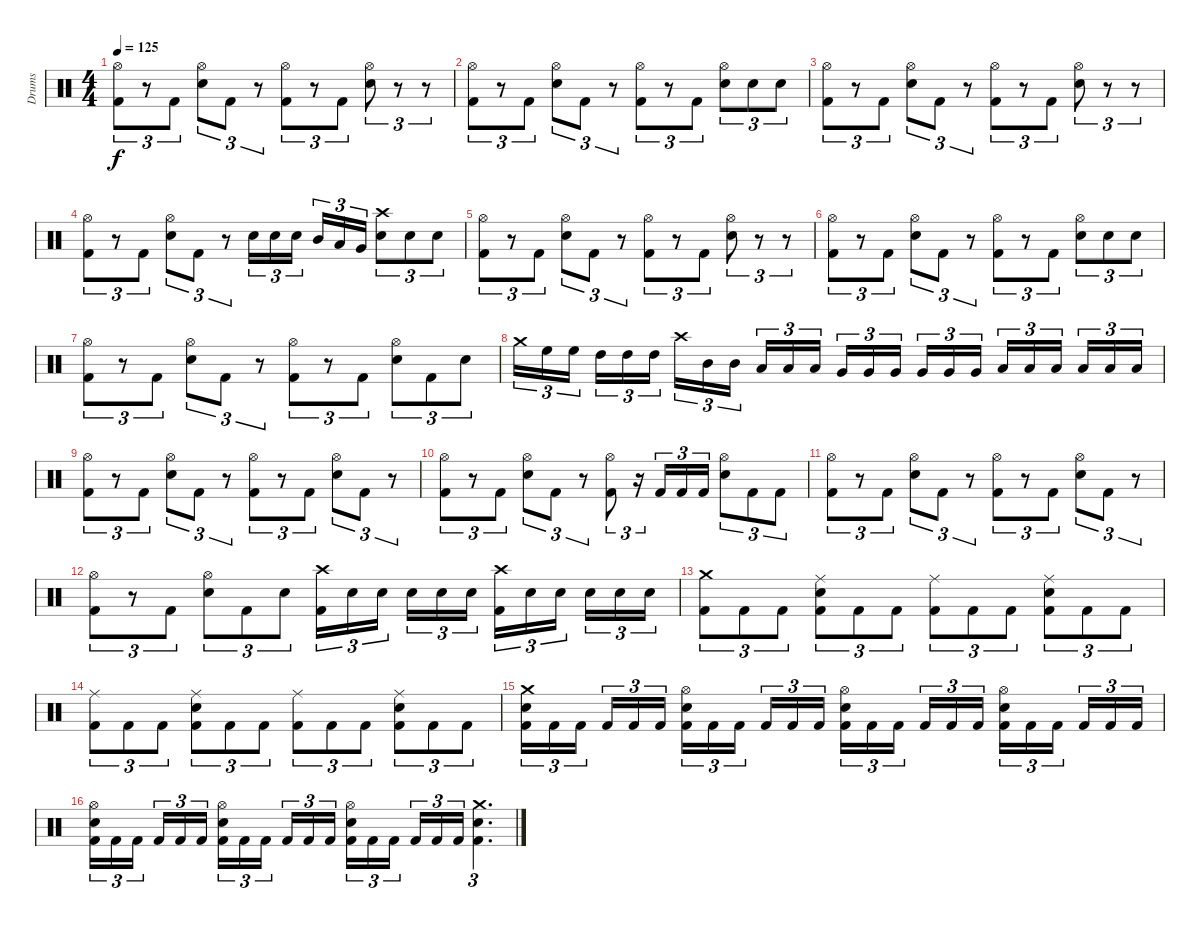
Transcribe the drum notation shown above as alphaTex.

\track ("Drums" "Drums") {instrument percussion}
\staff {score}
\articulation defaults
\ts (4 4)
\tempo 125
\clef neutral
\ks c
("Hi-Hat (open)" "Kick (hit) 2").8{tu (3 2) dy f} r.8{tu (3 2)} "Kick (hit) 2".8{tu (3 2)} ("Hi-Hat (open)" "Electric Snare (hit)").8{tu (3 2)} "Kick (hit) 2".8{tu (3 2)} r.8{tu (3 2)} ("Hi-Hat (open)" "Kick (hit) 2").8{tu (3 2)} r.8{tu (3 2)} "Kick (hit) 2".8{tu (3 2)} ("Hi-Hat (open)" "Electric Snare (hit)").8{tu (3 2)} r.8{tu (3 2)} r.8{tu (3 2)} |
("Hi-Hat (open)" "Kick (hit) 2").8{tu (3 2)} r.8{tu (3 2)} "Kick (hit) 2".8{tu (3 2)} ("Hi-Hat (open)" "Electric Snare (hit)").8{tu (3 2)} "Kick (hit) 2".8{tu (3 2)} r.8{tu (3 2)} ("Hi-Hat (open)" "Kick (hit) 2").8{tu (3 2)} r.8{tu (3 2)} "Kick (hit) 2".8{tu (3 2)} ("Hi-Hat (open)" "Electric Snare (hit)").8{tu (3 2)} "Electric Snare (hit)".8{tu (3 2)} "Electric Snare (hit)".8{tu (3 2)} |
("Hi-Hat (open)" "Kick (hit) 2").8{tu (3 2)} r.8{tu (3 2)} "Kick (hit) 2".8{tu (3 2)} ("Hi-Hat (open)" "Electric Snare (hit)").8{tu (3 2)} "Kick (hit) 2".8{tu (3 2)} r.8{tu (3 2)} ("Hi-Hat (open)" "Kick (hit) 2").8{tu (3 2)} r.8{tu (3 2)} "Kick (hit) 2".8{tu (3 2)} ("Hi-Hat (open)" "Electric Snare (hit)").8{tu (3 2)} r.8{tu (3 2)} r.8{tu (3 2)} |
("Hi-Hat (open)" "Kick (hit) 2").8{tu (3 2)} r.8{tu (3 2)} "Kick (hit) 2".8{tu (3 2)} ("Hi-Hat (open)" "Electric Snare (hit)").8{tu (3 2)} "Kick (hit) 2".8{tu (3 2)} r.8{tu (3 2)} "Electric Snare (hit)".16{tu (3 2)} "Electric Snare (hit)".16{tu (3 2)} "Electric Snare (hit)".16{tu (3 2) beam splitsecondary} "Mid Tom (hit)".16{tu (3 2)} "Low Tom (hit)".16{tu (3 2)} "Very Low Tom (hit)".16{tu (3 2)} ("Crash high (hit)" "Electric Snare (hit)").8{tu (3 2)} "Electric Snare (hit)".8{tu (3 2)} "Electric Snare (hit)".8{tu (3 2)} |
("Hi-Hat (open)" "Kick (hit) 2").8{tu (3 2)} r.8{tu (3 2)} "Kick (hit) 2".8{tu (3 2)} ("Hi-Hat (open)" "Electric Snare (hit)").8{tu (3 2)} "Kick (hit) 2".8{tu (3 2)} r.8{tu (3 2)} ("Hi-Hat (open)" "Kick (hit) 2").8{tu (3 2)} r.8{tu (3 2)} "Kick (hit) 2".8{tu (3 2)} ("Hi-Hat (open)" "Electric Snare (hit)").8{tu (3 2)} r.8{tu (3 2)} r.8{tu (3 2)} |
("Hi-Hat (open)" "Kick (hit) 2").8{tu (3 2)} r.8{tu (3 2)} "Kick (hit) 2".8{tu (3 2)} ("Hi-Hat (open)" "Electric Snare (hit)").8{tu (3 2)} "Kick (hit) 2".8{tu (3 2)} r.8{tu (3 2)} ("Hi-Hat (open)" "Kick (hit) 2").8{tu (3 2)} r.8{tu (3 2)} "Kick (hit) 2".8{tu (3 2)} ("Hi-Hat (open)" "Electric Snare (hit)").8{tu (3 2)} "Electric Snare (hit)".8{tu (3 2)} "Electric Snare (hit)".8{tu (3 2)} |
("Hi-Hat (open)" "Kick (hit) 2").8{tu (3 2)} r.8{tu (3 2)} "Kick (hit) 2".8{tu (3 2)} ("Hi-Hat (open)" "Electric Snare (hit)").8{tu (3 2)} "Kick (hit) 2".8{tu (3 2)} r.8{tu (3 2)} ("Hi-Hat (open)" "Kick (hit) 2").8{tu (3 2)} r.8{tu (3 2)} "Kick (hit) 2".8{tu (3 2)} ("Hi-Hat (open)" "Electric Snare (hit)").8{tu (3 2)} "Kick (hit) 2".8{tu (3 2)} "Electric Snare (hit)".8{tu (3 2)} |
"Crash medium (hit)".16{tu (3 2)} "High Floor Tom (hit)".16{tu (3 2)} "High Floor Tom (hit)".16{tu (3 2) beam splitsecondary} "High Tom (hit)".16{tu (3 2)} "High Tom (hit)".16{tu (3 2)} "High Tom (hit)".16{tu (3 2)} "Crash high (hit)".16{tu (3 2)} "Mid Tom (hit)".16{tu (3 2)} "Mid Tom (hit)".16{tu (3 2) beam splitsecondary} "Low Tom (hit)".16{tu (3 2)} "Low Tom (hit)".16{tu (3 2)} "Low Tom (hit)".16{tu (3 2)} "Very Low Tom (hit)".16{tu (3 2)} "Very Low Tom (hit)".16{tu (3 2)} "Very Low Tom (hit)".16{tu (3 2) beam splitsecondary} "Very Low Tom (hit)".16{tu (3 2)} "Very Low Tom (hit)".16{tu (3 2)} "Very Low Tom (hit)".16{tu (3 2)} "Low Floor Tom (hit)".16{tu (3 2)} "Low Floor Tom (hit)".16{tu (3 2)} "Low Floor Tom (hit)".16{tu (3 2) beam splitsecondary} "Low Floor Tom (hit)".16{tu (3 2)} "Low Floor Tom (hit)".16{tu (3 2)} "Low Floor Tom (hit)".16{tu (3 2)} |
("Hi-Hat (open)" "Kick (hit) 2").8{tu (3 2)} r.8{tu (3 2)} "Kick (hit) 2".8{tu (3 2)} ("Hi-Hat (open)" "Electric Snare (hit)").8{tu (3 2)} "Kick (hit) 2".8{tu (3 2)} r.8{tu (3 2)} ("Hi-Hat (open)" "Kick (hit) 2").8{tu (3 2)} r.8{tu (3 2)} "Kick (hit) 2".8{tu (3 2)} ("Hi-Hat (open)" "Electric Snare (hit)").8{tu (3 2)} "Kick (hit) 2".8{tu (3 2)} r.8{tu (3 2)} |
("Hi-Hat (open)" "Kick (hit) 2").8{tu (3 2)} r.8{tu (3 2)} "Kick (hit) 2".8{tu (3 2)} ("Hi-Hat (open)" "Electric Snare (hit)").8{tu (3 2)} "Kick (hit) 2".8{tu (3 2)} r.8{tu (3 2)} ("Hi-Hat (open)" "Kick (hit) 2").8{tu (3 2)} r.16{tu (3 2)} "Kick (hit) 2".16{tu (3 2)} "Kick (hit) 2".16{tu (3 2)} "Kick (hit) 2".16{tu (3 2)} ("Hi-Hat (open)" "Electric Snare (hit)").8{tu (3 2)} "Kick (hit) 2".8{tu (3 2)} "Kick (hit) 2".8{tu (3 2)} |
("Hi-Hat (open)" "Kick (hit) 2").8{tu (3 2)} r.8{tu (3 2)} "Kick (hit) 2".8{tu (3 2)} ("Hi-Hat (open)" "Electric Snare (hit)").8{tu (3 2)} "Kick (hit) 2".8{tu (3 2)} r.8{tu (3 2)} ("Hi-Hat (open)" "Kick (hit) 2").8{tu (3 2)} r.8{tu (3 2)} "Kick (hit) 2".8{tu (3 2)} ("Hi-Hat (open)" "Electric Snare (hit)").8{tu (3 2)} "Kick (hit) 2".8{tu (3 2)} r.8{tu (3 2)} |
("Hi-Hat (open)" "Kick (hit) 2").8{tu (3 2)} r.8{tu (3 2)} "Kick (hit) 2".8{tu (3 2)} ("Hi-Hat (open)" "Electric Snare (hit)").8{tu (3 2)} "Kick (hit) 2".8{tu (3 2)} "Electric Snare (hit)".8{tu (3 2)} ("Crash high (hit)" "Kick (hit) 2").16{tu (3 2)} "Electric Snare (hit)".16{tu (3 2)} "Electric Snare (hit)".16{tu (3 2) beam splitsecondary} "Electric Snare (hit)".16{tu (3 2)} "Electric Snare (hit)".16{tu (3 2)} "Electric Snare (hit)".16{tu (3 2)} ("Crash high (hit)" "Kick (hit) 2").16{tu (3 2)} "Electric Snare (hit)".16{tu (3 2)} "Electric Snare (hit)".16{tu (3 2) beam splitsecondary} "Electric Snare (hit)".16{tu (3 2)} "Electric Snare (hit)".16{tu (3 2)} "Electric Snare (hit)".16{tu (3 2)} |
("Crash medium (hit)" "Kick (hit) 2").8{tu (3 2)} "Kick (hit) 2".8{tu (3 2)} "Kick (hit) 2".8{tu (3 2)} ("Ride (middle)" "Electric Snare (hit)" "Kick (hit) 2").8{tu (3 2)} "Kick (hit) 2".8{tu (3 2)} "Kick (hit) 2".8{tu (3 2)} ("Ride (middle)" "Kick (hit) 2").8{tu (3 2)} "Kick (hit) 2".8{tu (3 2)} "Kick (hit) 2".8{tu (3 2)} ("Ride (middle)" "Electric Snare (hit)" "Kick (hit) 2").8{tu (3 2)} "Kick (hit) 2".8{tu (3 2)} "Kick (hit) 2".8{tu (3 2)} |
("Ride (middle)" "Kick (hit) 2").8{tu (3 2)} "Kick (hit) 2".8{tu (3 2)} "Kick (hit) 2".8{tu (3 2)} ("Ride (middle)" "Electric Snare (hit)" "Kick (hit) 2").8{tu (3 2)} "Kick (hit) 2".8{tu (3 2)} "Kick (hit) 2".8{tu (3 2)} ("Ride (middle)" "Kick (hit) 2").8{tu (3 2)} "Kick (hit) 2".8{tu (3 2)} "Kick (hit) 2".8{tu (3 2)} ("Ride (middle)" "Electric Snare (hit)" "Kick (hit) 2").8{tu (3 2)} "Kick (hit) 2".8{tu (3 2)} "Kick (hit) 2".8{tu (3 2)} |
("Crash medium (hit)" "Electric Snare (hit)" "Kick (hit) 2").16{tu (3 2)} "Kick (hit) 2".16{tu (3 2)} "Kick (hit) 2".16{tu (3 2) beam splitsecondary} "Kick (hit) 2".16{tu (3 2)} "Kick (hit) 2".16{tu (3 2)} "Kick (hit) 2".16{tu (3 2)} ("Hi-Hat (open)" "Electric Snare (hit)" "Kick (hit) 2").16{tu (3 2)} "Kick (hit) 2".16{tu (3 2)} "Kick (hit) 2".16{tu (3 2) beam splitsecondary} "Kick (hit) 2".16{tu (3 2)} "Kick (hit) 2".16{tu (3 2)} "Kick (hit) 2".16{tu (3 2)} ("Hi-Hat (open)" "Electric Snare (hit)" "Kick (hit) 2").16{tu (3 2)} "Kick (hit) 2".16{tu (3 2)} "Kick (hit) 2".16{tu (3 2) beam splitsecondary} "Kick (hit) 2".16{tu (3 2)} "Kick (hit) 2".16{tu (3 2)} "Kick (hit) 2".16{tu (3 2)} ("Hi-Hat (open)" "Electric Snare (hit)" "Kick (hit) 2").16{tu (3 2)} "Kick (hit) 2".16{tu (3 2)} "Kick (hit) 2".16{tu (3 2) beam splitsecondary} "Kick (hit) 2".16{tu (3 2)} "Kick (hit) 2".16{tu (3 2)} "Kick (hit) 2".16{tu (3 2)} |
("Hi-Hat (open)" "Electric Snare (hit)" "Kick (hit) 2").16{tu (3 2)} "Kick (hit) 2".16{tu (3 2)} "Kick (hit) 2".16{tu (3 2) beam splitsecondary} "Kick (hit) 2".16{tu (3 2)} "Kick (hit) 2".16{tu (3 2)} "Kick (hit) 2".16{tu (3 2)} ("Hi-Hat (open)" "Electric Snare (hit)" "Kick (hit) 2").16{tu (3 2)} "Kick (hit) 2".16{tu (3 2)} "Kick (hit) 2".16{tu (3 2) beam splitsecondary} "Kick (hit) 2".16{tu (3 2)} "Kick (hit) 2".16{tu (3 2)} "Kick (hit) 2".16{tu (3 2)} ("Hi-Hat (open)" "Electric Snare (hit)" "Kick (hit) 2").16{tu (3 2)} "Kick (hit) 2".16{tu (3 2)} "Kick (hit) 2".16{tu (3 2) beam splitsecondary} "Kick (hit) 2".16{tu (3 2)} "Kick (hit) 2".16{tu (3 2)} "Kick (hit) 2".16{tu (3 2)} ("Crash medium (hit)" "Electric Snare (hit)" "Kick (hit) 2").4{d tu (3 2)}
